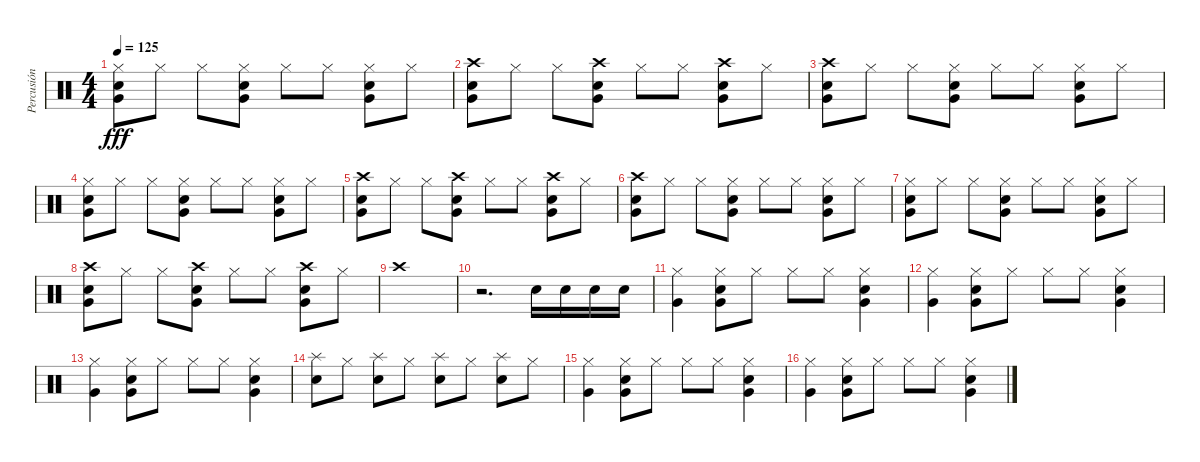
\track ("Percusión" "Percusión") {instrument percussion}
\staff {score}
\articulation defaults
\ts (4 4)
\tempo 125
\clef neutral
\ks c
("Hi-Hat (closed)" "Snare (hit) 2" "Very Low Tom (hit)").8{dy fff} "Hi-Hat (closed)".8 "Hi-Hat (closed)".8 ("Hi-Hat (closed)" "Snare (hit) 2" "Very Low Tom (hit)").8 "Hi-Hat (closed)".8 "Hi-Hat (closed)".8 ("Hi-Hat (closed)" "Snare (hit) 2" "Very Low Tom (hit)").8 "Hi-Hat (closed)".8 |
("Crash high (hit)" "Snare (hit) 2" "Very Low Tom (hit)").8 "Hi-Hat (closed)".8 "Hi-Hat (closed)".8 ("Crash high (hit)" "Snare (hit) 2" "Very Low Tom (hit)").8 "Hi-Hat (closed)".8 "Hi-Hat (closed)".8 ("Crash high (hit)" "Snare (hit) 2" "Very Low Tom (hit)").8 "Hi-Hat (closed)".8 |
("Crash high (hit)" "Snare (hit) 2" "Very Low Tom (hit)").8 "Hi-Hat (closed)".8 "Hi-Hat (closed)".8 ("Hi-Hat (closed)" "Snare (hit) 2" "Very Low Tom (hit)").8 "Hi-Hat (closed)".8 "Hi-Hat (closed)".8 ("Hi-Hat (closed)" "Snare (hit) 2" "Very Low Tom (hit)").8 "Hi-Hat (closed)".8 |
("Hi-Hat (closed)" "Snare (hit) 2" "Very Low Tom (hit)").8 "Hi-Hat (closed)".8 "Hi-Hat (closed)".8 ("Hi-Hat (closed)" "Snare (hit) 2" "Very Low Tom (hit)").8 "Hi-Hat (closed)".8 "Hi-Hat (closed)".8 ("Hi-Hat (closed)" "Snare (hit) 2" "Very Low Tom (hit)").8 "Hi-Hat (closed)".8 |
("Crash high (hit)" "Snare (hit) 2" "Very Low Tom (hit)").8 "Hi-Hat (closed)".8 "Hi-Hat (closed)".8 ("Crash high (hit)" "Snare (hit) 2" "Very Low Tom (hit)").8 "Hi-Hat (closed)".8 "Hi-Hat (closed)".8 ("Crash high (hit)" "Snare (hit) 2" "Very Low Tom (hit)").8 "Hi-Hat (closed)".8 |
("Crash high (hit)" "Snare (hit) 2" "Very Low Tom (hit)").8 "Hi-Hat (closed)".8 "Hi-Hat (closed)".8 ("Hi-Hat (closed)" "Snare (hit) 2" "Very Low Tom (hit)").8 "Hi-Hat (closed)".8 "Hi-Hat (closed)".8 ("Hi-Hat (closed)" "Snare (hit) 2" "Very Low Tom (hit)").8 "Hi-Hat (closed)".8 |
("Hi-Hat (closed)" "Snare (hit) 2" "Very Low Tom (hit)").8 "Hi-Hat (closed)".8 "Hi-Hat (closed)".8 ("Hi-Hat (closed)" "Snare (hit) 2" "Very Low Tom (hit)").8 "Hi-Hat (closed)".8 "Hi-Hat (closed)".8 ("Hi-Hat (closed)" "Snare (hit) 2" "Very Low Tom (hit)").8 "Hi-Hat (closed)".8 |
("Crash high (hit)" "Snare (hit) 2" "Very Low Tom (hit)").8 "Hi-Hat (closed)".8 "Hi-Hat (closed)".8 ("Crash high (hit)" "Snare (hit) 2" "Very Low Tom (hit)").8 "Hi-Hat (closed)".8 "Hi-Hat (closed)".8 ("Crash high (hit)" "Snare (hit) 2" "Very Low Tom (hit)").8 "Hi-Hat (closed)".8 |
"Crash high (hit)".1 |
r.2{d} "Snare (hit) 2".16 "Snare (hit) 2".16 "Snare (hit) 2".16 "Snare (hit) 2".16 |
("Hi-Hat (closed)" "Very Low Tom (hit)").4 ("Hi-Hat (closed)" "Snare (hit) 2" "Very Low Tom (hit)").8 "Hi-Hat (closed)".8 "Hi-Hat (closed)".8 "Hi-Hat (closed)".8 ("Hi-Hat (closed)" "Snare (hit) 2" "Very Low Tom (hit)").4 |
("Hi-Hat (closed)" "Very Low Tom (hit)").4 ("Hi-Hat (closed)" "Snare (hit) 2" "Very Low Tom (hit)").8 "Hi-Hat (closed)".8 "Hi-Hat (closed)".8 "Hi-Hat (closed)".8 ("Hi-Hat (closed)" "Snare (hit) 2" "Very Low Tom (hit)").4 |
("Hi-Hat (closed)" "Very Low Tom (hit)").4 ("Hi-Hat (closed)" "Snare (hit) 2" "Very Low Tom (hit)").8 "Hi-Hat (closed)".8 "Hi-Hat (closed)".8 "Hi-Hat (closed)".8 ("Hi-Hat (closed)" "Snare (hit) 2" "Very Low Tom (hit)").4 |
("Splash (hit)" "Snare (hit) 2").8 "Hi-Hat (closed)".8 ("Splash (hit)" "Snare (hit) 2").8 "Hi-Hat (closed)".8 ("Splash (hit)" "Snare (hit) 2").8 "Hi-Hat (closed)".8 ("Splash (hit)" "Snare (hit) 2").8 "Hi-Hat (closed)".8 |
("Hi-Hat (closed)" "Very Low Tom (hit)").4 ("Hi-Hat (closed)" "Snare (hit) 2" "Very Low Tom (hit)").8 "Hi-Hat (closed)".8 "Hi-Hat (closed)".8 "Hi-Hat (closed)".8 ("Hi-Hat (closed)" "Snare (hit) 2" "Very Low Tom (hit)").4 |
("Hi-Hat (closed)" "Very Low Tom (hit)").4 ("Hi-Hat (closed)" "Snare (hit) 2" "Very Low Tom (hit)").8 "Hi-Hat (closed)".8 "Hi-Hat (closed)".8 "Hi-Hat (closed)".8 ("Hi-Hat (closed)" "Snare (hit) 2" "Very Low Tom (hit)").4
